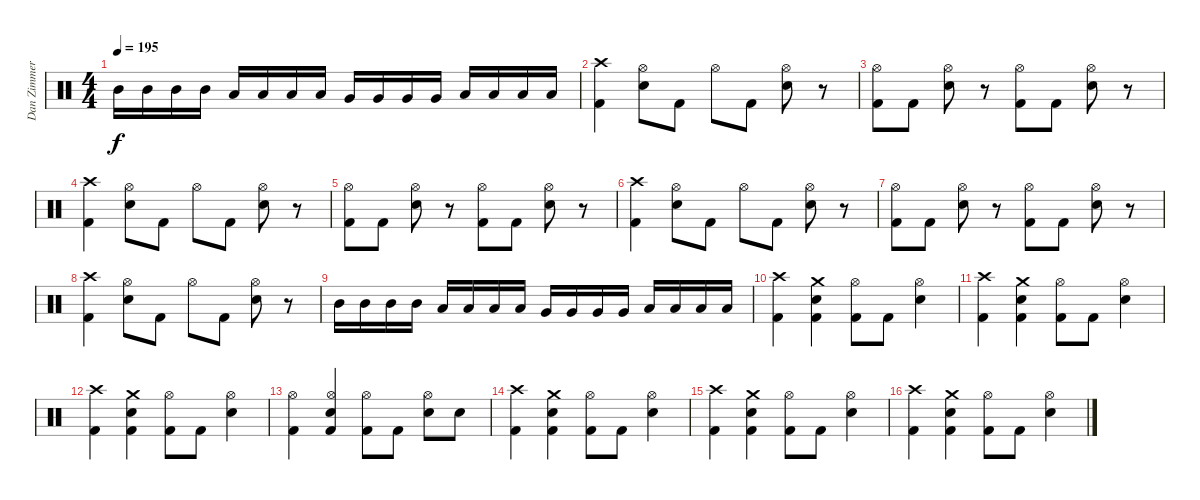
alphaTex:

\track ("Dan Zimmermann" "Dan Zimmer") {instrument percussion}
\staff {score}
\articulation defaults
\ts (4 4)
\tempo 195
\clef neutral
\ks c "Mid Tom (hit)".16{dy f} "Mid Tom (hit)".16 "Mid Tom (hit)".16 "Mid Tom (hit)".16 "Low Tom (hit)".16 "Low Tom (hit)".16 "Low Tom (hit)".16 "Low Tom (hit)".16 "Very Low Tom (hit)".16 "Very Low Tom (hit)".16 "Very Low Tom (hit)".16 "Very Low Tom (hit)".16 "Low Floor Tom (hit)".16 "Low Floor Tom (hit)".16 "Low Floor Tom (hit)".16 "Low Floor Tom (hit)".16
|
("Crash high (hit)" "Kick (hit) 2").4 ("Hi-Hat (open)" "Electric Snare (hit)").8 "Kick (hit) 2".8 "Hi-Hat (open)".8 "Kick (hit) 2".8 ("Hi-Hat (open)" "Electric Snare (hit)").8 r.8 |
("Hi-Hat (open)" "Kick (hit) 2").8 "Kick (hit) 2".8 ("Hi-Hat (open)" "Electric Snare (hit)").8 r.8 ("Hi-Hat (open)" "Kick (hit) 2").8 "Kick (hit) 2".8 ("Hi-Hat (open)" "Electric Snare (hit)").8 r.8 |
("Crash high (hit)" "Kick (hit) 2").4 ("Hi-Hat (open)" "Electric Snare (hit)").8 "Kick (hit) 2".8 "Hi-Hat (open)".8 "Kick (hit) 2".8 ("Hi-Hat (open)" "Electric Snare (hit)").8 r.8 |
("Hi-Hat (open)" "Kick (hit) 2").8 "Kick (hit) 2".8 ("Hi-Hat (open)" "Electric Snare (hit)").8 r.8 ("Hi-Hat (open)" "Kick (hit) 2").8 "Kick (hit) 2".8 ("Hi-Hat (open)" "Electric Snare (hit)").8 r.8 |
("Crash high (hit)" "Kick (hit) 2").4 ("Hi-Hat (open)" "Electric Snare (hit)").8 "Kick (hit) 2".8 "Hi-Hat (open)".8 "Kick (hit) 2".8 ("Hi-Hat (open)" "Electric Snare (hit)").8 r.8 |
("Hi-Hat (open)" "Kick (hit) 2").8 "Kick (hit) 2".8 ("Hi-Hat (open)" "Electric Snare (hit)").8 r.8 ("Hi-Hat (open)" "Kick (hit) 2").8 "Kick (hit) 2".8 ("Hi-Hat (open)" "Electric Snare (hit)").8 r.8 |
("Crash high (hit)" "Kick (hit) 2").4 ("Hi-Hat (open)" "Electric Snare (hit)").8 "Kick (hit) 2".8 "Hi-Hat (open)".8 "Kick (hit) 2".8 ("Hi-Hat (open)" "Electric Snare (hit)").8 r.8 |
"Mid Tom (hit)".16 "Mid Tom (hit)".16 "Mid Tom (hit)".16 "Mid Tom (hit)".16 "Low Tom (hit)".16 "Low Tom (hit)".16 "Low Tom (hit)".16 "Low Tom (hit)".16 "Very Low Tom (hit)".16 "Very Low Tom (hit)".16 "Very Low Tom (hit)".16 "Very Low Tom (hit)".16 "Low Floor Tom (hit)".16 "Low Floor Tom (hit)".16 "Low Floor Tom (hit)".16 "Low Floor Tom (hit)".16 |
("Crash high (hit)" "Kick (hit) 2").4 ("Crash medium (hit)" "Electric Snare (hit)" "Kick (hit) 2").4 ("Hi-Hat (open)" "Kick (hit) 2").8 "Kick (hit) 2".8 ("Hi-Hat (open)" "Electric Snare (hit)").4 |
("Crash high (hit)" "Kick (hit) 2").4 ("Crash medium (hit)" "Electric Snare (hit)" "Kick (hit) 2").4 ("Hi-Hat (open)" "Kick (hit) 2").8 "Kick (hit) 2".8 ("Hi-Hat (open)" "Electric Snare (hit)").4 |
("Crash high (hit)" "Kick (hit) 2").4 ("Crash medium (hit)" "Electric Snare (hit)" "Kick (hit) 2").4 ("Hi-Hat (open)" "Kick (hit) 2").8 "Kick (hit) 2".8 ("Hi-Hat (open)" "Electric Snare (hit)").4 |
("Hi-Hat (open)" "Kick (hit) 2").4 ("Hi-Hat (open)" "Electric Snare (hit)" "Kick (hit) 2").4 ("Hi-Hat (open)" "Kick (hit) 2").8 "Kick (hit) 2".8 ("Hi-Hat (open)" "Electric Snare (hit)").8 "Electric Snare (hit)".8 |
("Crash high (hit)" "Kick (hit) 2").4 ("Crash medium (hit)" "Electric Snare (hit)" "Kick (hit) 2").4 ("Hi-Hat (open)" "Kick (hit) 2").8 "Kick (hit) 2".8 ("Hi-Hat (open)" "Electric Snare (hit)").4 |
("Crash high (hit)" "Kick (hit) 2").4 ("Crash medium (hit)" "Electric Snare (hit)" "Kick (hit) 2").4 ("Hi-Hat (open)" "Kick (hit) 2").8 "Kick (hit) 2".8 ("Hi-Hat (open)" "Electric Snare (hit)").4 |
("Crash high (hit)" "Kick (hit) 2").4 ("Crash medium (hit)" "Electric Snare (hit)" "Kick (hit) 2").4 ("Hi-Hat (open)" "Kick (hit) 2").8 "Kick (hit) 2".8 ("Hi-Hat (open)" "Electric Snare (hit)").4
